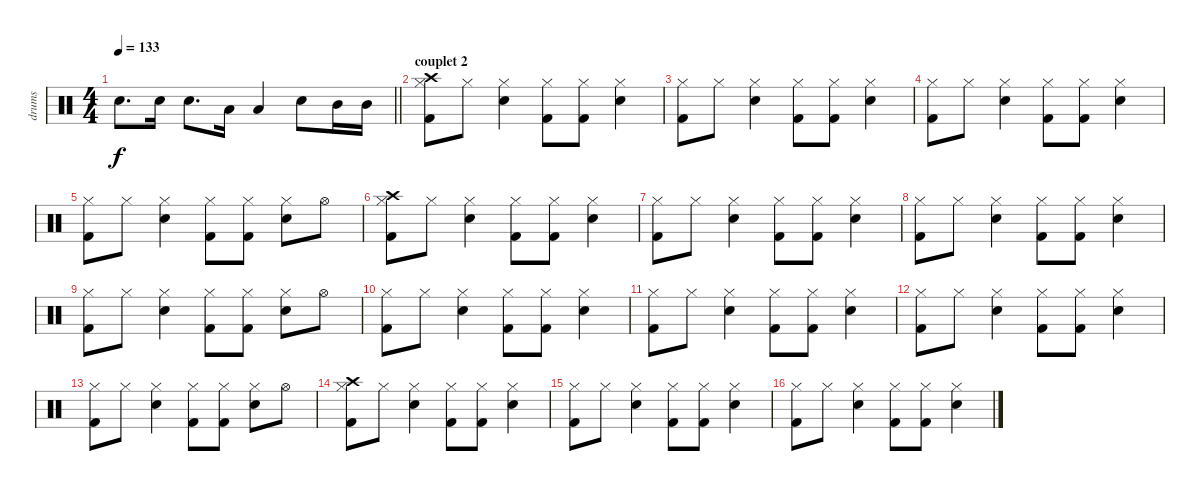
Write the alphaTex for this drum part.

\track ("drums" "drums") {instrument percussion}
\staff {score}
\articulation defaults
\ts (4 4)
\tempo 133
\clef neutral
\barLineRight lightlight
\ks c "Snare (hit) 2".8{d dy f} "Snare (hit) 2".16 "Snare (hit) 2".8{d} "Low Tom (hit)".16 "Low Tom (hit)".4 "Snare (hit) 2".8 "Mid Tom (hit)".16 "Mid Tom (hit)".16
|
\section ("" "couplet 2")
("Crash high (hit)" "Hi-Hat (closed)" "Kick (hit) 2").8 "Hi-Hat (closed)".8 ("Hi-Hat (closed)" "Snare (hit) 2").4 ("Hi-Hat (closed)" "Kick (hit) 2").8 ("Hi-Hat (closed)" "Kick (hit) 2").8 ("Hi-Hat (closed)" "Snare (hit) 2").4 |
("Hi-Hat (closed)" "Kick (hit) 2").8 "Hi-Hat (closed)".8 ("Hi-Hat (closed)" "Snare (hit) 2").4 ("Hi-Hat (closed)" "Kick (hit) 2").8 ("Hi-Hat (closed)" "Kick (hit) 2").8 ("Hi-Hat (closed)" "Snare (hit) 2").4 |
("Hi-Hat (closed)" "Kick (hit) 2").8 "Hi-Hat (closed)".8 ("Hi-Hat (closed)" "Snare (hit) 2").4 ("Hi-Hat (closed)" "Kick (hit) 2").8 ("Hi-Hat (closed)" "Kick (hit) 2").8 ("Hi-Hat (closed)" "Snare (hit) 2").4 |
("Hi-Hat (closed)" "Kick (hit) 2").8 "Hi-Hat (closed)".8 ("Hi-Hat (closed)" "Snare (hit) 2").4 ("Hi-Hat (closed)" "Kick (hit) 2").8 ("Hi-Hat (closed)" "Kick (hit) 2").8 ("Hi-Hat (closed)" "Snare (hit) 2").8 "Hi-Hat (open)".8 |
("Crash high (hit)" "Hi-Hat (closed)" "Kick (hit) 2").8 "Hi-Hat (closed)".8 ("Hi-Hat (closed)" "Snare (hit) 2").4 ("Hi-Hat (closed)" "Kick (hit) 2").8 ("Hi-Hat (closed)" "Kick (hit) 2").8 ("Hi-Hat (closed)" "Snare (hit) 2").4 |
("Hi-Hat (closed)" "Kick (hit) 2").8 "Hi-Hat (closed)".8 ("Hi-Hat (closed)" "Snare (hit) 2").4 ("Hi-Hat (closed)" "Kick (hit) 2").8 ("Hi-Hat (closed)" "Kick (hit) 2").8 ("Hi-Hat (closed)" "Snare (hit) 2").4 |
("Hi-Hat (closed)" "Kick (hit) 2").8 "Hi-Hat (closed)".8 ("Hi-Hat (closed)" "Snare (hit) 2").4 ("Hi-Hat (closed)" "Kick (hit) 2").8 ("Hi-Hat (closed)" "Kick (hit) 2").8 ("Hi-Hat (closed)" "Snare (hit) 2").4 |
("Hi-Hat (closed)" "Kick (hit) 2").8 "Hi-Hat (closed)".8 ("Hi-Hat (closed)" "Snare (hit) 2").4 ("Hi-Hat (closed)" "Kick (hit) 2").8 ("Hi-Hat (closed)" "Kick (hit) 2").8 ("Hi-Hat (closed)" "Snare (hit) 2").8 "Hi-Hat (open)".8 |
("Hi-Hat (closed)" "Kick (hit) 2").8 "Hi-Hat (closed)".8 ("Hi-Hat (closed)" "Snare (hit) 2").4 ("Hi-Hat (closed)" "Kick (hit) 2").8 ("Hi-Hat (closed)" "Kick (hit) 2").8 ("Hi-Hat (closed)" "Snare (hit) 2").4 |
("Hi-Hat (closed)" "Kick (hit) 2").8 "Hi-Hat (closed)".8 ("Hi-Hat (closed)" "Snare (hit) 2").4 ("Hi-Hat (closed)" "Kick (hit) 2").8 ("Hi-Hat (closed)" "Kick (hit) 2").8 ("Hi-Hat (closed)" "Snare (hit) 2").4 |
("Hi-Hat (closed)" "Kick (hit) 2").8 "Hi-Hat (closed)".8 ("Hi-Hat (closed)" "Snare (hit) 2").4 ("Hi-Hat (closed)" "Kick (hit) 2").8 ("Hi-Hat (closed)" "Kick (hit) 2").8 ("Hi-Hat (closed)" "Snare (hit) 2").4 |
("Hi-Hat (closed)" "Kick (hit) 2").8 "Hi-Hat (closed)".8 ("Hi-Hat (closed)" "Snare (hit) 2").4 ("Hi-Hat (closed)" "Kick (hit) 2").8 ("Hi-Hat (closed)" "Kick (hit) 2").8 ("Hi-Hat (closed)" "Snare (hit) 2").8 "Hi-Hat (open)".8 |
("Crash high (hit)" "Hi-Hat (closed)" "Kick (hit) 2").8 "Hi-Hat (closed)".8 ("Hi-Hat (closed)" "Snare (hit) 2").4 ("Hi-Hat (closed)" "Kick (hit) 2").8 ("Hi-Hat (closed)" "Kick (hit) 2").8 ("Hi-Hat (closed)" "Snare (hit) 2").4 |
("Hi-Hat (closed)" "Kick (hit) 2").8 "Hi-Hat (closed)".8 ("Hi-Hat (closed)" "Snare (hit) 2").4 ("Hi-Hat (closed)" "Kick (hit) 2").8 ("Hi-Hat (closed)" "Kick (hit) 2").8 ("Hi-Hat (closed)" "Snare (hit) 2").4 |
("Hi-Hat (closed)" "Kick (hit) 2").8 "Hi-Hat (closed)".8 ("Hi-Hat (closed)" "Snare (hit) 2").4 ("Hi-Hat (closed)" "Kick (hit) 2").8 ("Hi-Hat (closed)" "Kick (hit) 2").8 ("Hi-Hat (closed)" "Snare (hit) 2").4
